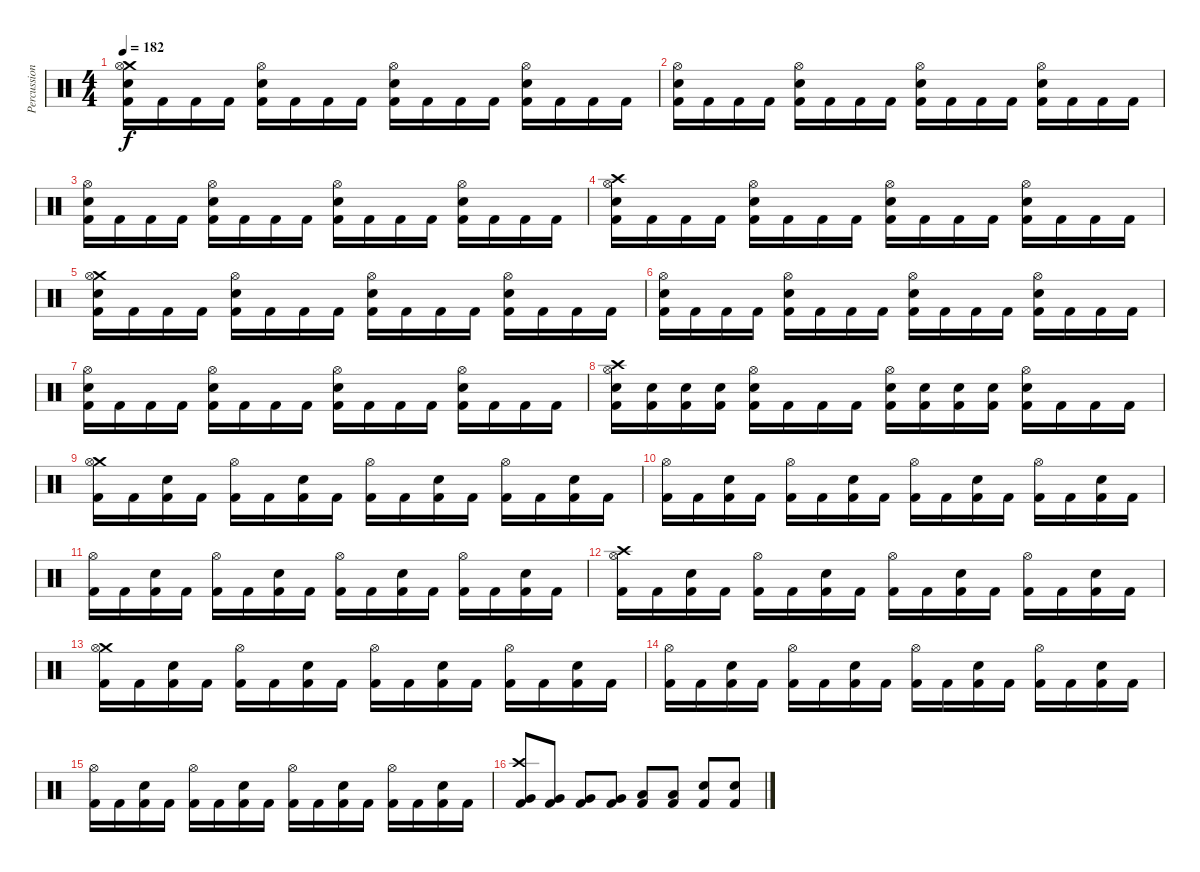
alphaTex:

\track ("Percussion" "Percussion") {instrument percussion}
\staff {score}
\articulation defaults
\ts (4 4)
\tempo 182
\clef neutral
\ks c
("Crash medium (hit)" "Hi-Hat (open)" "Electric Snare (hit)" "Kick (hit) 2").16{dy f} "Kick (hit) 2".16 "Kick (hit) 2".16 "Kick (hit) 2".16 ("Hi-Hat (open)" "Electric Snare (hit)" "Kick (hit) 2").16 "Kick (hit) 2".16 "Kick (hit) 2".16 "Kick (hit) 2".16 ("Hi-Hat (open)" "Electric Snare (hit)" "Kick (hit) 2").16 "Kick (hit) 2".16 "Kick (hit) 2".16 "Kick (hit) 2".16 ("Hi-Hat (open)" "Electric Snare (hit)" "Kick (hit) 2").16 "Kick (hit) 2".16 "Kick (hit) 2".16 "Kick (hit) 2".16 |
("Hi-Hat (open)" "Electric Snare (hit)" "Kick (hit) 2").16 "Kick (hit) 2".16 "Kick (hit) 2".16 "Kick (hit) 2".16 ("Hi-Hat (open)" "Electric Snare (hit)" "Kick (hit) 2").16 "Kick (hit) 2".16 "Kick (hit) 2".16 "Kick (hit) 2".16 ("Hi-Hat (open)" "Electric Snare (hit)" "Kick (hit) 2").16 "Kick (hit) 2".16 "Kick (hit) 2".16 "Kick (hit) 2".16 ("Hi-Hat (open)" "Electric Snare (hit)" "Kick (hit) 2").16 "Kick (hit) 2".16 "Kick (hit) 2".16 "Kick (hit) 2".16 |
("Hi-Hat (open)" "Electric Snare (hit)" "Kick (hit) 2").16 "Kick (hit) 2".16 "Kick (hit) 2".16 "Kick (hit) 2".16 ("Hi-Hat (open)" "Electric Snare (hit)" "Kick (hit) 2").16 "Kick (hit) 2".16 "Kick (hit) 2".16 "Kick (hit) 2".16 ("Hi-Hat (open)" "Electric Snare (hit)" "Kick (hit) 2").16 "Kick (hit) 2".16 "Kick (hit) 2".16 "Kick (hit) 2".16 ("Hi-Hat (open)" "Electric Snare (hit)" "Kick (hit) 2").16 "Kick (hit) 2".16 "Kick (hit) 2".16 "Kick (hit) 2".16 |
("Crash high (hit)" "Hi-Hat (open)" "Electric Snare (hit)" "Kick (hit) 2").16 "Kick (hit) 2".16 "Kick (hit) 2".16 "Kick (hit) 2".16 ("Hi-Hat (open)" "Electric Snare (hit)" "Kick (hit) 2").16 "Kick (hit) 2".16 "Kick (hit) 2".16 "Kick (hit) 2".16 ("Hi-Hat (open)" "Electric Snare (hit)" "Kick (hit) 2").16 "Kick (hit) 2".16 "Kick (hit) 2".16 "Kick (hit) 2".16 ("Hi-Hat (open)" "Electric Snare (hit)" "Kick (hit) 2").16 "Kick (hit) 2".16 "Kick (hit) 2".16 "Kick (hit) 2".16 |
("Crash medium (hit)" "Hi-Hat (open)" "Electric Snare (hit)" "Kick (hit) 2").16 "Kick (hit) 2".16 "Kick (hit) 2".16 "Kick (hit) 2".16 ("Hi-Hat (open)" "Electric Snare (hit)" "Kick (hit) 2").16 "Kick (hit) 2".16 "Kick (hit) 2".16 "Kick (hit) 2".16 ("Hi-Hat (open)" "Electric Snare (hit)" "Kick (hit) 2").16 "Kick (hit) 2".16 "Kick (hit) 2".16 "Kick (hit) 2".16 ("Hi-Hat (open)" "Electric Snare (hit)" "Kick (hit) 2").16 "Kick (hit) 2".16 "Kick (hit) 2".16 "Kick (hit) 2".16 |
("Hi-Hat (open)" "Electric Snare (hit)" "Kick (hit) 2").16 "Kick (hit) 2".16 "Kick (hit) 2".16 "Kick (hit) 2".16 ("Hi-Hat (open)" "Electric Snare (hit)" "Kick (hit) 2").16 "Kick (hit) 2".16 "Kick (hit) 2".16 "Kick (hit) 2".16 ("Hi-Hat (open)" "Electric Snare (hit)" "Kick (hit) 2").16 "Kick (hit) 2".16 "Kick (hit) 2".16 "Kick (hit) 2".16 ("Hi-Hat (open)" "Electric Snare (hit)" "Kick (hit) 2").16 "Kick (hit) 2".16 "Kick (hit) 2".16 "Kick (hit) 2".16 |
("Hi-Hat (open)" "Electric Snare (hit)" "Kick (hit) 2").16 "Kick (hit) 2".16 "Kick (hit) 2".16 "Kick (hit) 2".16 ("Hi-Hat (open)" "Electric Snare (hit)" "Kick (hit) 2").16 "Kick (hit) 2".16 "Kick (hit) 2".16 "Kick (hit) 2".16 ("Hi-Hat (open)" "Electric Snare (hit)" "Kick (hit) 2").16 "Kick (hit) 2".16 "Kick (hit) 2".16 "Kick (hit) 2".16 ("Hi-Hat (open)" "Electric Snare (hit)" "Kick (hit) 2").16 "Kick (hit) 2".16 "Kick (hit) 2".16 "Kick (hit) 2".16 |
("Crash high (hit)" "Hi-Hat (open)" "Electric Snare (hit)" "Kick (hit) 2").16 ("Electric Snare (hit)" "Kick (hit) 2").16 ("Electric Snare (hit)" "Kick (hit) 2").16 ("Electric Snare (hit)" "Kick (hit) 2").16 ("Hi-Hat (open)" "Electric Snare (hit)" "Kick (hit) 2").16 "Kick (hit) 2".16 "Kick (hit) 2".16 "Kick (hit) 2".16 ("Hi-Hat (open)" "Electric Snare (hit)" "Kick (hit) 2").16 ("Electric Snare (hit)" "Kick (hit) 2").16 ("Electric Snare (hit)" "Kick (hit) 2").16 ("Electric Snare (hit)" "Kick (hit) 2").16 ("Hi-Hat (open)" "Electric Snare (hit)" "Kick (hit) 2").16 "Kick (hit) 2".16 "Kick (hit) 2".16 "Kick (hit) 2".16 |
("Crash medium (hit)" "Hi-Hat (open)" "Kick (hit) 2").16 "Kick (hit) 2".16 ("Electric Snare (hit)" "Kick (hit) 2").16 "Kick (hit) 2".16 ("Hi-Hat (open)" "Kick (hit) 2").16 "Kick (hit) 2".16 ("Electric Snare (hit)" "Kick (hit) 2").16 "Kick (hit) 2".16 ("Hi-Hat (open)" "Kick (hit) 2").16 "Kick (hit) 2".16 ("Electric Snare (hit)" "Kick (hit) 2").16 "Kick (hit) 2".16 ("Hi-Hat (open)" "Kick (hit) 2").16 "Kick (hit) 2".16 ("Electric Snare (hit)" "Kick (hit) 2").16 "Kick (hit) 2".16 |
("Hi-Hat (open)" "Kick (hit) 2").16 "Kick (hit) 2".16 ("Electric Snare (hit)" "Kick (hit) 2").16 "Kick (hit) 2".16 ("Hi-Hat (open)" "Kick (hit) 2").16 "Kick (hit) 2".16 ("Electric Snare (hit)" "Kick (hit) 2").16 "Kick (hit) 2".16 ("Hi-Hat (open)" "Kick (hit) 2").16 "Kick (hit) 2".16 ("Electric Snare (hit)" "Kick (hit) 2").16 "Kick (hit) 2".16 ("Hi-Hat (open)" "Kick (hit) 2").16 "Kick (hit) 2".16 ("Electric Snare (hit)" "Kick (hit) 2").16 "Kick (hit) 2".16 |
("Hi-Hat (open)" "Kick (hit) 2").16 "Kick (hit) 2".16 ("Electric Snare (hit)" "Kick (hit) 2").16 "Kick (hit) 2".16 ("Hi-Hat (open)" "Kick (hit) 2").16 "Kick (hit) 2".16 ("Electric Snare (hit)" "Kick (hit) 2").16 "Kick (hit) 2".16 ("Hi-Hat (open)" "Kick (hit) 2").16 "Kick (hit) 2".16 ("Electric Snare (hit)" "Kick (hit) 2").16 "Kick (hit) 2".16 ("Hi-Hat (open)" "Kick (hit) 2").16 "Kick (hit) 2".16 ("Electric Snare (hit)" "Kick (hit) 2").16 "Kick (hit) 2".16 |
("Crash high (hit)" "Hi-Hat (open)" "Kick (hit) 2").16 "Kick (hit) 2".16 ("Electric Snare (hit)" "Kick (hit) 2").16 "Kick (hit) 2".16 ("Hi-Hat (open)" "Kick (hit) 2").16 "Kick (hit) 2".16 ("Electric Snare (hit)" "Kick (hit) 2").16 "Kick (hit) 2".16 ("Hi-Hat (open)" "Kick (hit) 2").16 "Kick (hit) 2".16 ("Electric Snare (hit)" "Kick (hit) 2").16 "Kick (hit) 2".16 ("Hi-Hat (open)" "Kick (hit) 2").16 "Kick (hit) 2".16 ("Electric Snare (hit)" "Kick (hit) 2").16 "Kick (hit) 2".16 |
("Crash medium (hit)" "Hi-Hat (open)" "Kick (hit) 2").16 "Kick (hit) 2".16 ("Electric Snare (hit)" "Kick (hit) 2").16 "Kick (hit) 2".16 ("Hi-Hat (open)" "Kick (hit) 2").16 "Kick (hit) 2".16 ("Electric Snare (hit)" "Kick (hit) 2").16 "Kick (hit) 2".16 ("Hi-Hat (open)" "Kick (hit) 2").16 "Kick (hit) 2".16 ("Electric Snare (hit)" "Kick (hit) 2").16 "Kick (hit) 2".16 ("Hi-Hat (open)" "Kick (hit) 2").16 "Kick (hit) 2".16 ("Electric Snare (hit)" "Kick (hit) 2").16 "Kick (hit) 2".16 |
("Hi-Hat (open)" "Kick (hit) 2").16 "Kick (hit) 2".16 ("Electric Snare (hit)" "Kick (hit) 2").16 "Kick (hit) 2".16 ("Hi-Hat (open)" "Kick (hit) 2").16 "Kick (hit) 2".16 ("Electric Snare (hit)" "Kick (hit) 2").16 "Kick (hit) 2".16 ("Hi-Hat (open)" "Kick (hit) 2").16 "Kick (hit) 2".16 ("Electric Snare (hit)" "Kick (hit) 2").16 "Kick (hit) 2".16 ("Hi-Hat (open)" "Kick (hit) 2").16 "Kick (hit) 2".16 ("Electric Snare (hit)" "Kick (hit) 2").16 "Kick (hit) 2".16 |
("Hi-Hat (open)" "Kick (hit) 2").16 "Kick (hit) 2".16 ("Electric Snare (hit)" "Kick (hit) 2").16 "Kick (hit) 2".16 ("Hi-Hat (open)" "Kick (hit) 2").16 "Kick (hit) 2".16 ("Electric Snare (hit)" "Kick (hit) 2").16 "Kick (hit) 2".16 ("Hi-Hat (open)" "Kick (hit) 2").16 "Kick (hit) 2".16 ("Electric Snare (hit)" "Kick (hit) 2").16 "Kick (hit) 2".16 ("Hi-Hat (open)" "Kick (hit) 2").16 "Kick (hit) 2".16 ("Electric Snare (hit)" "Kick (hit) 2").16 "Kick (hit) 2".16 |
("Crash high (hit)" "Very Low Tom (hit)" "Kick (hit) 2").8 ("Very Low Tom (hit)" "Kick (hit) 2").8 ("Very Low Tom (hit)" "Kick (hit) 2").8 ("Very Low Tom (hit)" "Kick (hit) 2").8 ("Low Floor Tom (hit)" "Kick (hit) 2").8 ("Low Floor Tom (hit)" "Kick (hit) 2").8 ("Electric Snare (hit)" "Kick (hit) 2").8 ("Electric Snare (hit)" "Kick (hit) 2").8
